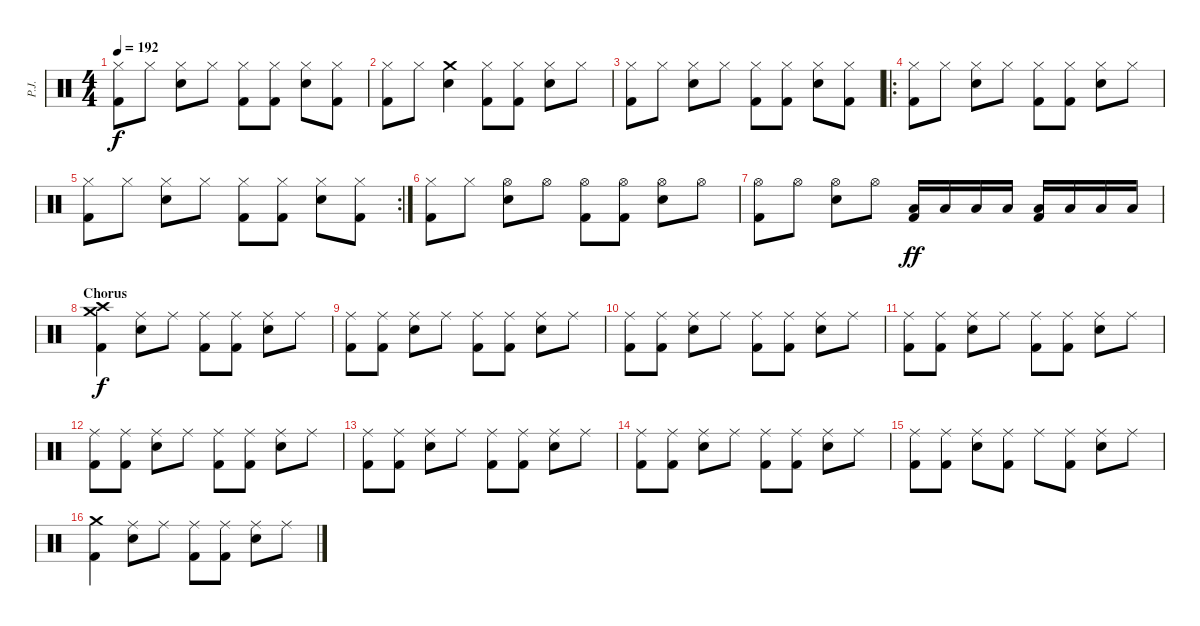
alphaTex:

\track ("P.J." "P.J.") {instrument percussion}
\staff {score}
\articulation defaults
\ts (4 4)
\tempo 192
\clef neutral
\ks c
("Hi-Hat (closed)" "Kick (hit) 2").8{dy f} "Hi-Hat (closed)".8 ("Hi-Hat (closed)" "Snare (hit) 2").8 "Hi-Hat (closed)".8 ("Hi-Hat (closed)" "Kick (hit) 2").8 ("Hi-Hat (closed)" "Kick (hit) 2").8 ("Hi-Hat (closed)" "Snare (hit) 2").8 ("Hi-Hat (closed)" "Kick (hit) 2").8 |
("Hi-Hat (closed)" "Kick (hit) 2").8 "Hi-Hat (closed)".8 ("Crash medium (hit)" "Snare (hit) 2").4 ("Hi-Hat (closed)" "Kick (hit) 2").8 ("Hi-Hat (closed)" "Kick (hit) 2").8 ("Hi-Hat (closed)" "Snare (hit) 2").8 "Hi-Hat (closed)".8 |
("Hi-Hat (closed)" "Kick (hit) 2").8 "Hi-Hat (closed)".8 ("Hi-Hat (closed)" "Snare (hit) 2").8 "Hi-Hat (closed)".8 ("Hi-Hat (closed)" "Kick (hit) 2").8 ("Hi-Hat (closed)" "Kick (hit) 2").8 ("Hi-Hat (closed)" "Snare (hit) 2").8 ("Hi-Hat (closed)" "Kick (hit) 2").8 |
\ro
("Hi-Hat (closed)" "Kick (hit) 2").8 "Hi-Hat (closed)".8 ("Hi-Hat (closed)" "Snare (hit) 2").8 "Hi-Hat (closed)".8 ("Hi-Hat (closed)" "Kick (hit) 2").8 ("Hi-Hat (closed)" "Kick (hit) 2").8 ("Hi-Hat (closed)" "Snare (hit) 2").8 "Hi-Hat (closed)".8 |
\rc 2
("Hi-Hat (closed)" "Kick (hit) 2").8 "Hi-Hat (closed)".8 ("Hi-Hat (closed)" "Snare (hit) 2").8 "Hi-Hat (closed)".8 ("Hi-Hat (closed)" "Kick (hit) 2").8 ("Hi-Hat (closed)" "Kick (hit) 2").8 ("Hi-Hat (closed)" "Snare (hit) 2").8 ("Hi-Hat (closed)" "Kick (hit) 2").8 |
("Hi-Hat (closed)" "Kick (hit) 2").8 "Hi-Hat (closed)".8 ("Hi-Hat (open)" "Snare (hit) 2").8 "Hi-Hat (open)".8 ("Hi-Hat (open)" "Kick (hit) 2").8 ("Hi-Hat (open)" "Kick (hit) 2").8 ("Hi-Hat (open)" "Snare (hit) 2").8 "Hi-Hat (open)".8 |
("Hi-Hat (open)" "Kick (hit) 2").8 "Hi-Hat (open)".8 ("Hi-Hat (open)" "Snare (hit) 2").8 "Hi-Hat (open)".8 ("Low Tom (hit)" "Kick (hit) 2").16{dy ff} "Low Tom (hit)".16 "Low Tom (hit)".16 "Low Tom (hit)".16 ("Low Tom (hit)" "Kick (hit) 2").16 "Low Tom (hit)".16 "Low Tom (hit)".16 "Low Tom (hit)".16 |
\section ("" "Chorus")
("Crash high (hit)" "Crash medium (hit)" "Kick (hit) 2").4{dy f} ("Ride (middle)" "Snare (hit) 2").8 "Ride (middle)".8 ("Ride (middle)" "Kick (hit) 2").8 ("Ride (middle)" "Kick (hit) 2").8 ("Ride (middle)" "Snare (hit) 2").8 "Ride (middle)".8 |
("Ride (middle)" "Kick (hit) 2").8 ("Ride (middle)" "Kick (hit) 2").8 ("Ride (middle)" "Snare (hit) 2").8 "Ride (middle)".8 ("Ride (middle)" "Kick (hit) 2").8 ("Ride (middle)" "Kick (hit) 2").8 ("Ride (middle)" "Snare (hit) 2").8 "Ride (middle)".8 |
("Ride (middle)" "Kick (hit) 2").8 ("Ride (middle)" "Kick (hit) 2").8 ("Ride (middle)" "Snare (hit) 2").8 "Ride (middle)".8 ("Ride (middle)" "Kick (hit) 2").8 ("Ride (middle)" "Kick (hit) 2").8 ("Ride (middle)" "Snare (hit) 2").8 "Ride (middle)".8 |
("Ride (middle)" "Kick (hit) 2").8 ("Ride (middle)" "Kick (hit) 2").8 ("Ride (middle)" "Snare (hit) 2").8 "Ride (middle)".8 ("Ride (middle)" "Kick (hit) 2").8 ("Ride (middle)" "Kick (hit) 2").8 ("Ride (middle)" "Snare (hit) 2").8 "Ride (middle)".8 |
("Ride (middle)" "Kick (hit) 2").8 ("Ride (middle)" "Kick (hit) 2").8 ("Ride (middle)" "Snare (hit) 2").8 "Ride (middle)".8 ("Ride (middle)" "Kick (hit) 2").8 ("Ride (middle)" "Kick (hit) 2").8 ("Ride (middle)" "Snare (hit) 2").8 "Ride (middle)".8 |
("Ride (middle)" "Kick (hit) 2").8 ("Ride (middle)" "Kick (hit) 2").8 ("Ride (middle)" "Snare (hit) 2").8 "Ride (middle)".8 ("Ride (middle)" "Kick (hit) 2").8 ("Ride (middle)" "Kick (hit) 2").8 ("Ride (middle)" "Snare (hit) 2").8 "Ride (middle)".8 |
("Ride (middle)" "Kick (hit) 2").8 ("Ride (middle)" "Kick (hit) 2").8 ("Ride (middle)" "Snare (hit) 2").8 "Ride (middle)".8 ("Ride (middle)" "Kick (hit) 2").8 ("Ride (middle)" "Kick (hit) 2").8 ("Ride (middle)" "Snare (hit) 2").8 "Ride (middle)".8 |
("Ride (middle)" "Kick (hit) 2").8 ("Ride (middle)" "Kick (hit) 2").8 ("Ride (middle)" "Snare (hit) 2").8 ("Ride (middle)" "Kick (hit) 2").8 "Ride (middle)".8 ("Ride (middle)" "Kick (hit) 2").8 ("Ride (middle)" "Snare (hit) 2").8 "Ride (middle)".8 |
("Crash medium (hit)" "Kick (hit) 2").4 ("Ride (middle)" "Snare (hit) 2").8 "Ride (middle)".8 ("Ride (middle)" "Kick (hit) 2").8 ("Ride (middle)" "Kick (hit) 2").8 ("Ride (middle)" "Snare (hit) 2").8 "Ride (middle)".8
